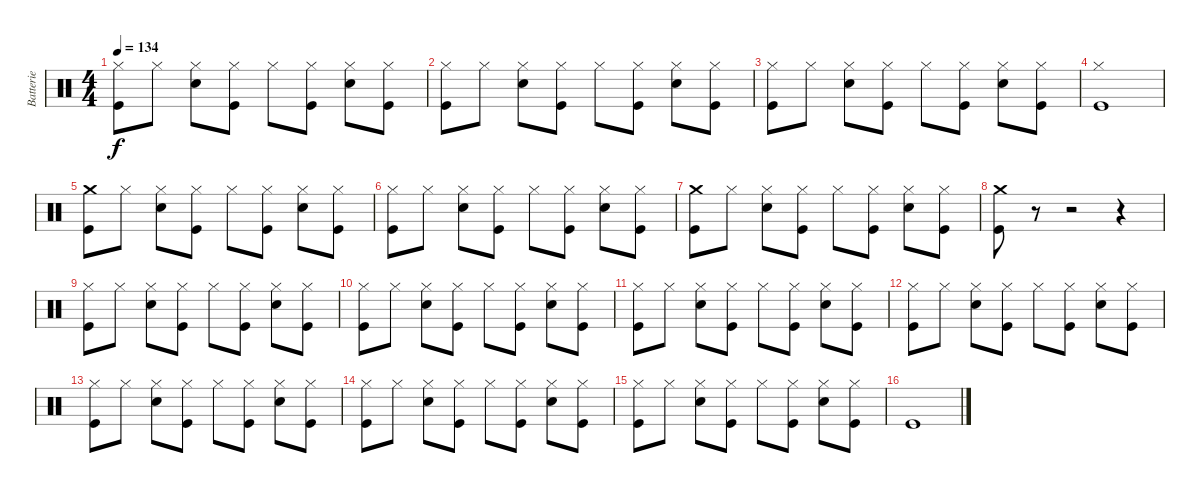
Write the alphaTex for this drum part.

\track ("Batterie" "Batterie") {instrument percussion}
\staff {score}
\articulation defaults
\ts (4 4)
\tempo 134
\clef neutral
\ks c
("Kick (hit)" "Hi-Hat (closed)").8{dy f} "Hi-Hat (closed)".8 ("Snare (hit) 2" "Hi-Hat (closed)").8 ("Kick (hit)" "Hi-Hat (closed)").8 "Hi-Hat (closed)".8 ("Kick (hit)" "Hi-Hat (closed)").8 ("Snare (hit) 2" "Hi-Hat (closed)").8 ("Kick (hit)" "Hi-Hat (closed)").8 |
("Kick (hit)" "Hi-Hat (closed)").8 "Hi-Hat (closed)".8 ("Snare (hit) 2" "Hi-Hat (closed)").8 ("Kick (hit)" "Hi-Hat (closed)").8 "Hi-Hat (closed)".8 ("Kick (hit)" "Hi-Hat (closed)").8 ("Snare (hit) 2" "Hi-Hat (closed)").8 ("Kick (hit)" "Hi-Hat (closed)").8 |
("Kick (hit)" "Hi-Hat (closed)").8 "Hi-Hat (closed)".8 ("Snare (hit) 2" "Hi-Hat (closed)").8 ("Kick (hit)" "Hi-Hat (closed)").8 "Hi-Hat (closed)".8 ("Kick (hit)" "Hi-Hat (closed)").8 ("Snare (hit) 2" "Hi-Hat (closed)").8 ("Kick (hit)" "Hi-Hat (closed)").8 |
("Kick (hit)" "Hi-Hat (closed)").1 |
("Kick (hit)" "Crash medium (hit)").8 "Hi-Hat (closed)".8 ("Snare (hit) 2" "Hi-Hat (closed)").8 ("Kick (hit)" "Hi-Hat (closed)").8 "Hi-Hat (closed)".8 ("Kick (hit)" "Hi-Hat (closed)").8 ("Snare (hit) 2" "Hi-Hat (closed)").8 ("Kick (hit)" "Hi-Hat (closed)").8 |
("Kick (hit)" "Hi-Hat (closed)").8 "Hi-Hat (closed)".8 ("Snare (hit) 2" "Hi-Hat (closed)").8 ("Kick (hit)" "Hi-Hat (closed)").8 "Hi-Hat (closed)".8 ("Kick (hit)" "Hi-Hat (closed)").8 ("Snare (hit) 2" "Hi-Hat (closed)").8 ("Kick (hit)" "Hi-Hat (closed)").8 |
("Kick (hit)" "Crash medium (hit)").8 "Hi-Hat (closed)".8 ("Snare (hit) 2" "Hi-Hat (closed)").8 ("Kick (hit)" "Hi-Hat (closed)").8 "Hi-Hat (closed)".8 ("Kick (hit)" "Hi-Hat (closed)").8 ("Snare (hit) 2" "Hi-Hat (closed)").8 ("Kick (hit)" "Hi-Hat (closed)").8 |
("Kick (hit)" "Crash medium (hit)").8 r.8 r.2 r.4 |
("Kick (hit)" "Hi-Hat (closed)").8 "Hi-Hat (closed)".8 ("Snare (hit) 2" "Hi-Hat (closed)").8 ("Kick (hit)" "Hi-Hat (closed)").8 "Hi-Hat (closed)".8 ("Kick (hit)" "Hi-Hat (closed)").8 ("Snare (hit) 2" "Hi-Hat (closed)").8 ("Kick (hit)" "Hi-Hat (closed)").8 |
("Kick (hit)" "Hi-Hat (closed)").8 "Hi-Hat (closed)".8 ("Snare (hit) 2" "Hi-Hat (closed)").8 ("Kick (hit)" "Hi-Hat (closed)").8 "Hi-Hat (closed)".8 ("Kick (hit)" "Hi-Hat (closed)").8 ("Snare (hit) 2" "Hi-Hat (closed)").8 ("Kick (hit)" "Hi-Hat (closed)").8 |
("Kick (hit)" "Hi-Hat (closed)").8 "Hi-Hat (closed)".8 ("Snare (hit) 2" "Hi-Hat (closed)").8 ("Kick (hit)" "Hi-Hat (closed)").8 "Hi-Hat (closed)".8 ("Kick (hit)" "Hi-Hat (closed)").8 ("Snare (hit) 2" "Hi-Hat (closed)").8 ("Kick (hit)" "Hi-Hat (closed)").8 |
("Kick (hit)" "Hi-Hat (closed)").8 "Hi-Hat (closed)".8 ("Snare (hit) 2" "Hi-Hat (closed)").8 ("Kick (hit)" "Hi-Hat (closed)").8 "Hi-Hat (closed)".8 ("Kick (hit)" "Hi-Hat (closed)").8 ("Snare (hit) 2" "Hi-Hat (closed)").8 ("Kick (hit)" "Hi-Hat (closed)").8 |
("Kick (hit)" "Hi-Hat (closed)").8 "Hi-Hat (closed)".8 ("Snare (hit) 2" "Hi-Hat (closed)").8 ("Kick (hit)" "Hi-Hat (closed)").8 "Hi-Hat (closed)".8 ("Kick (hit)" "Hi-Hat (closed)").8 ("Snare (hit) 2" "Hi-Hat (closed)").8 ("Kick (hit)" "Hi-Hat (closed)").8 |
("Kick (hit)" "Hi-Hat (closed)").8 "Hi-Hat (closed)".8 ("Snare (hit) 2" "Hi-Hat (closed)").8 ("Kick (hit)" "Hi-Hat (closed)").8 "Hi-Hat (closed)".8 ("Kick (hit)" "Hi-Hat (closed)").8 ("Snare (hit) 2" "Hi-Hat (closed)").8 ("Kick (hit)" "Hi-Hat (closed)").8 |
("Kick (hit)" "Hi-Hat (closed)").8 "Hi-Hat (closed)".8 ("Snare (hit) 2" "Hi-Hat (closed)").8 ("Kick (hit)" "Hi-Hat (closed)").8 "Hi-Hat (closed)".8 ("Kick (hit)" "Hi-Hat (closed)").8 ("Snare (hit) 2" "Hi-Hat (closed)").8 ("Kick (hit)" "Hi-Hat (closed)").8 |
"Kick (hit)".1
